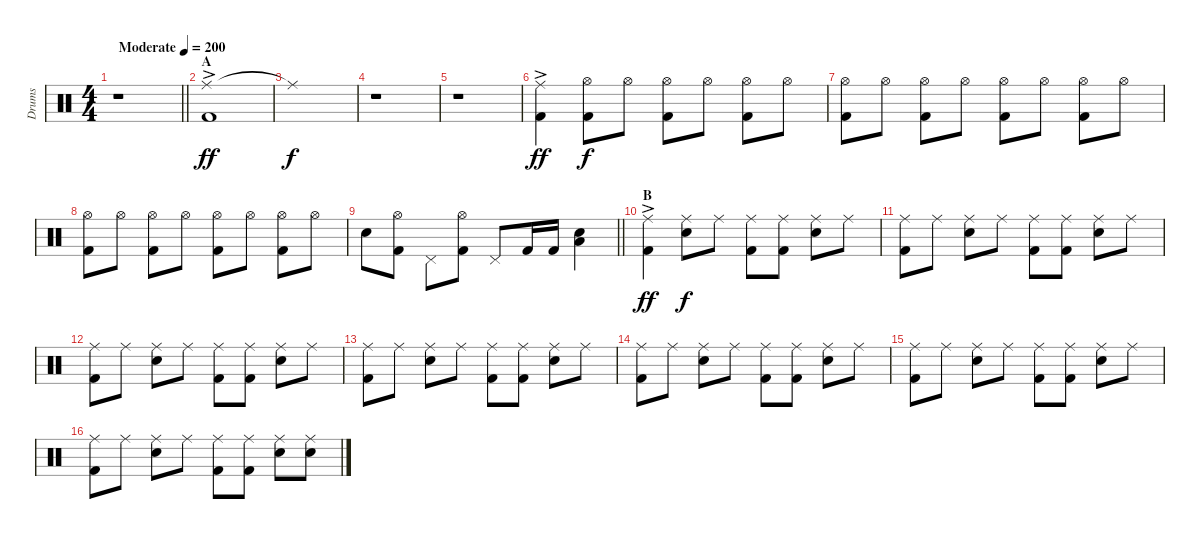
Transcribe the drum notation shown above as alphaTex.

\track ("Drums" "Drums") {instrument percussion}
\staff {score}
\articulation defaults
\ts (4 4)
\tempo (200 "Moderate")
\clef neutral
\barLineRight lightlight
\ks c
r.1{dy ff} |
\section ("" "A")
("Ride (middle)"{ac} "Kick (hit) 2").1 |
"Ride (middle)"{t}.1{dy f} |
r.1 |
r.1 |
("Ride (middle)"{ac} "Kick (hit) 2").4{dy ff} ("Hi-Hat (open)" "Kick (hit) 2").8{dy f} "Hi-Hat (open)".8 ("Hi-Hat (open)" "Kick (hit) 2").8 "Hi-Hat (open)".8 ("Hi-Hat (open)" "Kick (hit) 2").8 "Hi-Hat (open)".8 |
("Hi-Hat (open)" "Kick (hit) 2").8 "Hi-Hat (open)".8 ("Hi-Hat (open)" "Kick (hit) 2").8 "Hi-Hat (open)".8 ("Hi-Hat (open)" "Kick (hit) 2").8 "Hi-Hat (open)".8 ("Hi-Hat (open)" "Kick (hit) 2").8 "Hi-Hat (open)".8 |
("Hi-Hat (open)" "Kick (hit) 2").8 "Hi-Hat (open)".8 ("Hi-Hat (open)" "Kick (hit) 2").8 "Hi-Hat (open)".8 ("Hi-Hat (open)" "Kick (hit) 2").8 "Hi-Hat (open)".8 ("Hi-Hat (open)" "Kick (hit) 2").8 "Hi-Hat (open)".8 |
\barLineRight lightlight "Snare (hit) 2".8
("Hi-Hat (open)" "Kick (hit) 2").8 "Pedal Hi-Hat (hit)".8 ("Hi-Hat (open)" "Kick (hit) 2").8 "Pedal Hi-Hat (hit)".8 "Kick (hit) 2".16 "Kick (hit) 2".16 ("Snare (hit) 2" "Low Tom (hit)").4 |
\section ("" "B")
("Ride (middle)"{ac} "Kick (hit) 2").4{dy ff} ("Ride (middle)" "Snare (hit) 2").8{dy f} "Ride (middle)".8 ("Ride (middle)" "Kick (hit) 2").8 ("Ride (middle)" "Kick (hit) 2").8 ("Ride (middle)" "Snare (hit) 2").8 "Ride (middle)".8 |
("Ride (middle)" "Kick (hit) 2").8 "Ride (middle)".8 ("Ride (middle)" "Snare (hit) 2").8 "Ride (middle)".8 ("Ride (middle)" "Kick (hit) 2").8 ("Ride (middle)" "Kick (hit) 2").8 ("Ride (middle)" "Snare (hit) 2").8 "Ride (middle)".8 |
("Ride (middle)" "Kick (hit) 2").8 "Ride (middle)".8 ("Ride (middle)" "Snare (hit) 2").8 "Ride (middle)".8 ("Ride (middle)" "Kick (hit) 2").8 ("Ride (middle)" "Kick (hit) 2").8 ("Ride (middle)" "Snare (hit) 2").8 "Ride (middle)".8 |
("Ride (middle)" "Kick (hit) 2").8 "Ride (middle)".8 ("Ride (middle)" "Snare (hit) 2").8 "Ride (middle)".8 ("Ride (middle)" "Kick (hit) 2").8 ("Ride (middle)" "Kick (hit) 2").8 ("Ride (middle)" "Snare (hit) 2").8 "Ride (middle)".8 |
("Ride (middle)" "Kick (hit) 2").8 "Ride (middle)".8 ("Ride (middle)" "Snare (hit) 2").8 "Ride (middle)".8 ("Ride (middle)" "Kick (hit) 2").8 ("Ride (middle)" "Kick (hit) 2").8 ("Ride (middle)" "Snare (hit) 2").8 "Ride (middle)".8 |
("Ride (middle)" "Kick (hit) 2").8 "Ride (middle)".8 ("Ride (middle)" "Snare (hit) 2").8 "Ride (middle)".8 ("Ride (middle)" "Kick (hit) 2").8 ("Ride (middle)" "Kick (hit) 2").8 ("Ride (middle)" "Snare (hit) 2").8 "Ride (middle)".8 |
("Ride (middle)" "Kick (hit) 2").8 "Ride (middle)".8 ("Ride (middle)" "Snare (hit) 2").8 "Ride (middle)".8 ("Ride (middle)" "Kick (hit) 2").8 ("Ride (middle)" "Kick (hit) 2").8 ("Ride (middle)" "Snare (hit) 2").8 ("Ride (middle)" "Snare (hit) 2").8
